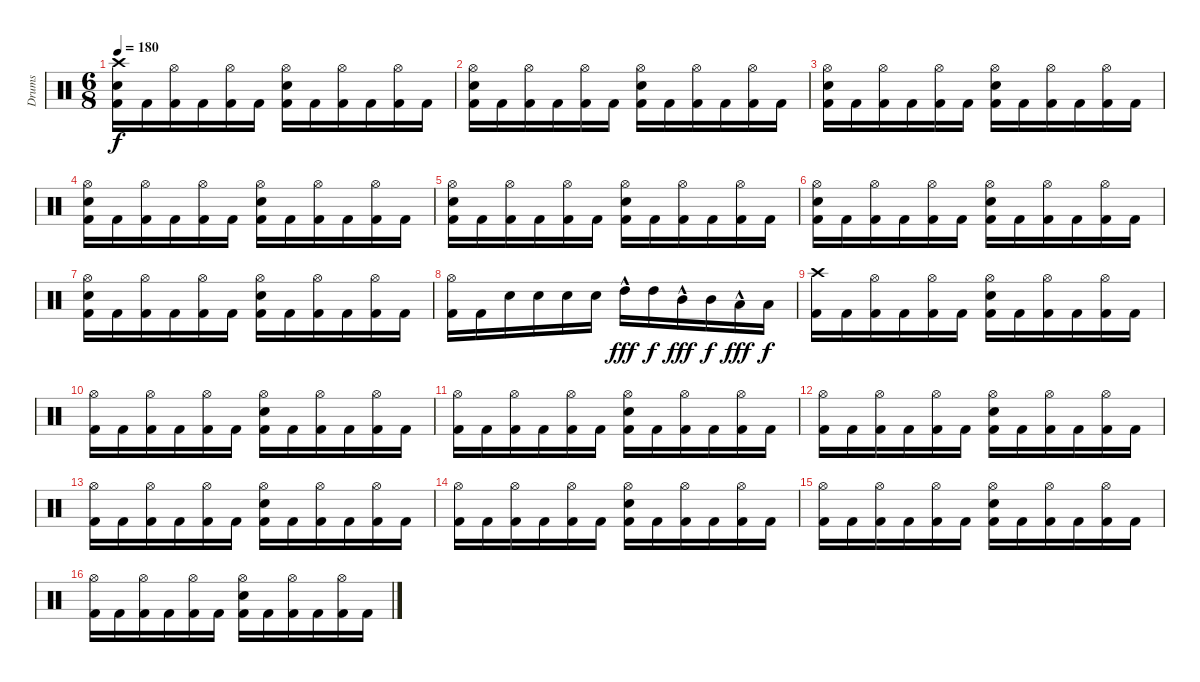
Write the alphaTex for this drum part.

\track ("Drums" "Drums") {instrument percussion}
\staff {score}
\articulation defaults
\ts (6 8)
\tempo 180
\clef neutral
\ks c
("Kick (hit) 2" "Electric Snare (hit)" "Crash high (hit)").16{dy f} "Kick (hit) 2".16 ("Kick (hit) 2" "Hi-Hat (open)").16 "Kick (hit) 2".16 ("Kick (hit) 2" "Hi-Hat (open)").16 "Kick (hit) 2".16 ("Kick (hit) 2" "Electric Snare (hit)" "Hi-Hat (open)").16 "Kick (hit) 2".16 ("Kick (hit) 2" "Hi-Hat (open)").16 "Kick (hit) 2".16 ("Kick (hit) 2" "Hi-Hat (open)").16 "Kick (hit) 2".16 |
("Kick (hit) 2" "Electric Snare (hit)" "Hi-Hat (open)").16 "Kick (hit) 2".16 ("Kick (hit) 2" "Hi-Hat (open)").16 "Kick (hit) 2".16 ("Kick (hit) 2" "Hi-Hat (open)").16 "Kick (hit) 2".16 ("Kick (hit) 2" "Electric Snare (hit)" "Hi-Hat (open)").16 "Kick (hit) 2".16 ("Kick (hit) 2" "Hi-Hat (open)").16 "Kick (hit) 2".16 ("Kick (hit) 2" "Hi-Hat (open)").16 "Kick (hit) 2".16 |
("Kick (hit) 2" "Electric Snare (hit)" "Hi-Hat (open)").16 "Kick (hit) 2".16 ("Kick (hit) 2" "Hi-Hat (open)").16 "Kick (hit) 2".16 ("Kick (hit) 2" "Hi-Hat (open)").16 "Kick (hit) 2".16 ("Kick (hit) 2" "Electric Snare (hit)" "Hi-Hat (open)").16 "Kick (hit) 2".16 ("Kick (hit) 2" "Hi-Hat (open)").16 "Kick (hit) 2".16 ("Kick (hit) 2" "Hi-Hat (open)").16 "Kick (hit) 2".16 |
("Kick (hit) 2" "Electric Snare (hit)" "Hi-Hat (open)").16 "Kick (hit) 2".16 ("Kick (hit) 2" "Hi-Hat (open)").16 "Kick (hit) 2".16 ("Kick (hit) 2" "Hi-Hat (open)").16 "Kick (hit) 2".16 ("Kick (hit) 2" "Electric Snare (hit)" "Hi-Hat (open)").16 "Kick (hit) 2".16 ("Kick (hit) 2" "Hi-Hat (open)").16 "Kick (hit) 2".16 ("Kick (hit) 2" "Hi-Hat (open)").16 "Kick (hit) 2".16 |
("Kick (hit) 2" "Electric Snare (hit)" "Hi-Hat (open)").16 "Kick (hit) 2".16 ("Kick (hit) 2" "Hi-Hat (open)").16 "Kick (hit) 2".16 ("Kick (hit) 2" "Hi-Hat (open)").16 "Kick (hit) 2".16 ("Kick (hit) 2" "Electric Snare (hit)" "Hi-Hat (open)").16 "Kick (hit) 2".16 ("Kick (hit) 2" "Hi-Hat (open)").16 "Kick (hit) 2".16 ("Kick (hit) 2" "Hi-Hat (open)").16 "Kick (hit) 2".16 |
("Kick (hit) 2" "Electric Snare (hit)" "Hi-Hat (open)").16 "Kick (hit) 2".16 ("Kick (hit) 2" "Hi-Hat (open)").16 "Kick (hit) 2".16 ("Kick (hit) 2" "Hi-Hat (open)").16 "Kick (hit) 2".16 ("Kick (hit) 2" "Electric Snare (hit)" "Hi-Hat (open)").16 "Kick (hit) 2".16 ("Kick (hit) 2" "Hi-Hat (open)").16 "Kick (hit) 2".16 ("Kick (hit) 2" "Hi-Hat (open)").16 "Kick (hit) 2".16 |
("Kick (hit) 2" "Electric Snare (hit)" "Hi-Hat (open)").16 "Kick (hit) 2".16 ("Kick (hit) 2" "Hi-Hat (open)").16 "Kick (hit) 2".16 ("Kick (hit) 2" "Hi-Hat (open)").16 "Kick (hit) 2".16 ("Kick (hit) 2" "Electric Snare (hit)" "Hi-Hat (open)").16 "Kick (hit) 2".16 ("Kick (hit) 2" "Hi-Hat (open)").16 "Kick (hit) 2".16 ("Kick (hit) 2" "Hi-Hat (open)").16 "Kick (hit) 2".16 |
("Kick (hit) 2" "Hi-Hat (open)").16 "Kick (hit) 2".16 "Electric Snare (hit)".16 "Electric Snare (hit)".16 "Electric Snare (hit)".16 "Electric Snare (hit)".16 "High Tom (hit)"{hac}.16{dy fff} "High Tom (hit)".16{dy f} "Mid Tom (hit)"{hac}.16{dy fff} "Mid Tom (hit)".16{dy f} "Low Tom (hit)"{hac}.16{dy fff} "Low Tom (hit)".16{dy f} |
("Kick (hit) 2" "Crash high (hit)").16 "Kick (hit) 2".16 ("Kick (hit) 2" "Hi-Hat (open)").16 "Kick (hit) 2".16 ("Kick (hit) 2" "Hi-Hat (open)").16 "Kick (hit) 2".16 ("Kick (hit) 2" "Electric Snare (hit)" "Hi-Hat (open)").16 "Kick (hit) 2".16 ("Kick (hit) 2" "Hi-Hat (open)").16 "Kick (hit) 2".16 ("Kick (hit) 2" "Hi-Hat (open)").16 "Kick (hit) 2".16 |
("Kick (hit) 2" "Hi-Hat (open)").16 "Kick (hit) 2".16 ("Kick (hit) 2" "Hi-Hat (open)").16 "Kick (hit) 2".16 ("Kick (hit) 2" "Hi-Hat (open)").16 "Kick (hit) 2".16 ("Kick (hit) 2" "Electric Snare (hit)" "Hi-Hat (open)").16 "Kick (hit) 2".16 ("Kick (hit) 2" "Hi-Hat (open)").16 "Kick (hit) 2".16 ("Kick (hit) 2" "Hi-Hat (open)").16 "Kick (hit) 2".16 |
("Kick (hit) 2" "Hi-Hat (open)").16 "Kick (hit) 2".16 ("Kick (hit) 2" "Hi-Hat (open)").16 "Kick (hit) 2".16 ("Kick (hit) 2" "Hi-Hat (open)").16 "Kick (hit) 2".16 ("Kick (hit) 2" "Electric Snare (hit)" "Hi-Hat (open)").16 "Kick (hit) 2".16 ("Kick (hit) 2" "Hi-Hat (open)").16 "Kick (hit) 2".16 ("Kick (hit) 2" "Hi-Hat (open)").16 "Kick (hit) 2".16 |
("Kick (hit) 2" "Hi-Hat (open)").16 "Kick (hit) 2".16 ("Kick (hit) 2" "Hi-Hat (open)").16 "Kick (hit) 2".16 ("Kick (hit) 2" "Hi-Hat (open)").16 "Kick (hit) 2".16 ("Kick (hit) 2" "Electric Snare (hit)" "Hi-Hat (open)").16 "Kick (hit) 2".16 ("Kick (hit) 2" "Hi-Hat (open)").16 "Kick (hit) 2".16 ("Kick (hit) 2" "Hi-Hat (open)").16 "Kick (hit) 2".16 |
("Kick (hit) 2" "Hi-Hat (open)").16 "Kick (hit) 2".16 ("Kick (hit) 2" "Hi-Hat (open)").16 "Kick (hit) 2".16 ("Kick (hit) 2" "Hi-Hat (open)").16 "Kick (hit) 2".16 ("Kick (hit) 2" "Electric Snare (hit)" "Hi-Hat (open)").16 "Kick (hit) 2".16 ("Kick (hit) 2" "Hi-Hat (open)").16 "Kick (hit) 2".16 ("Kick (hit) 2" "Hi-Hat (open)").16 "Kick (hit) 2".16 |
("Kick (hit) 2" "Hi-Hat (open)").16 "Kick (hit) 2".16 ("Kick (hit) 2" "Hi-Hat (open)").16 "Kick (hit) 2".16 ("Kick (hit) 2" "Hi-Hat (open)").16 "Kick (hit) 2".16 ("Kick (hit) 2" "Electric Snare (hit)" "Hi-Hat (open)").16 "Kick (hit) 2".16 ("Kick (hit) 2" "Hi-Hat (open)").16 "Kick (hit) 2".16 ("Kick (hit) 2" "Hi-Hat (open)").16 "Kick (hit) 2".16 |
("Kick (hit) 2" "Hi-Hat (open)").16 "Kick (hit) 2".16 ("Kick (hit) 2" "Hi-Hat (open)").16 "Kick (hit) 2".16 ("Kick (hit) 2" "Hi-Hat (open)").16 "Kick (hit) 2".16 ("Kick (hit) 2" "Electric Snare (hit)" "Hi-Hat (open)").16 "Kick (hit) 2".16 ("Kick (hit) 2" "Hi-Hat (open)").16 "Kick (hit) 2".16 ("Kick (hit) 2" "Hi-Hat (open)").16 "Kick (hit) 2".16 |
("Kick (hit) 2" "Hi-Hat (open)").16 "Kick (hit) 2".16 ("Kick (hit) 2" "Hi-Hat (open)").16 "Kick (hit) 2".16 ("Kick (hit) 2" "Hi-Hat (open)").16 "Kick (hit) 2".16 ("Kick (hit) 2" "Electric Snare (hit)" "Hi-Hat (open)").16 "Kick (hit) 2".16 ("Kick (hit) 2" "Hi-Hat (open)").16 "Kick (hit) 2".16 ("Kick (hit) 2" "Hi-Hat (open)").16 "Kick (hit) 2".16
